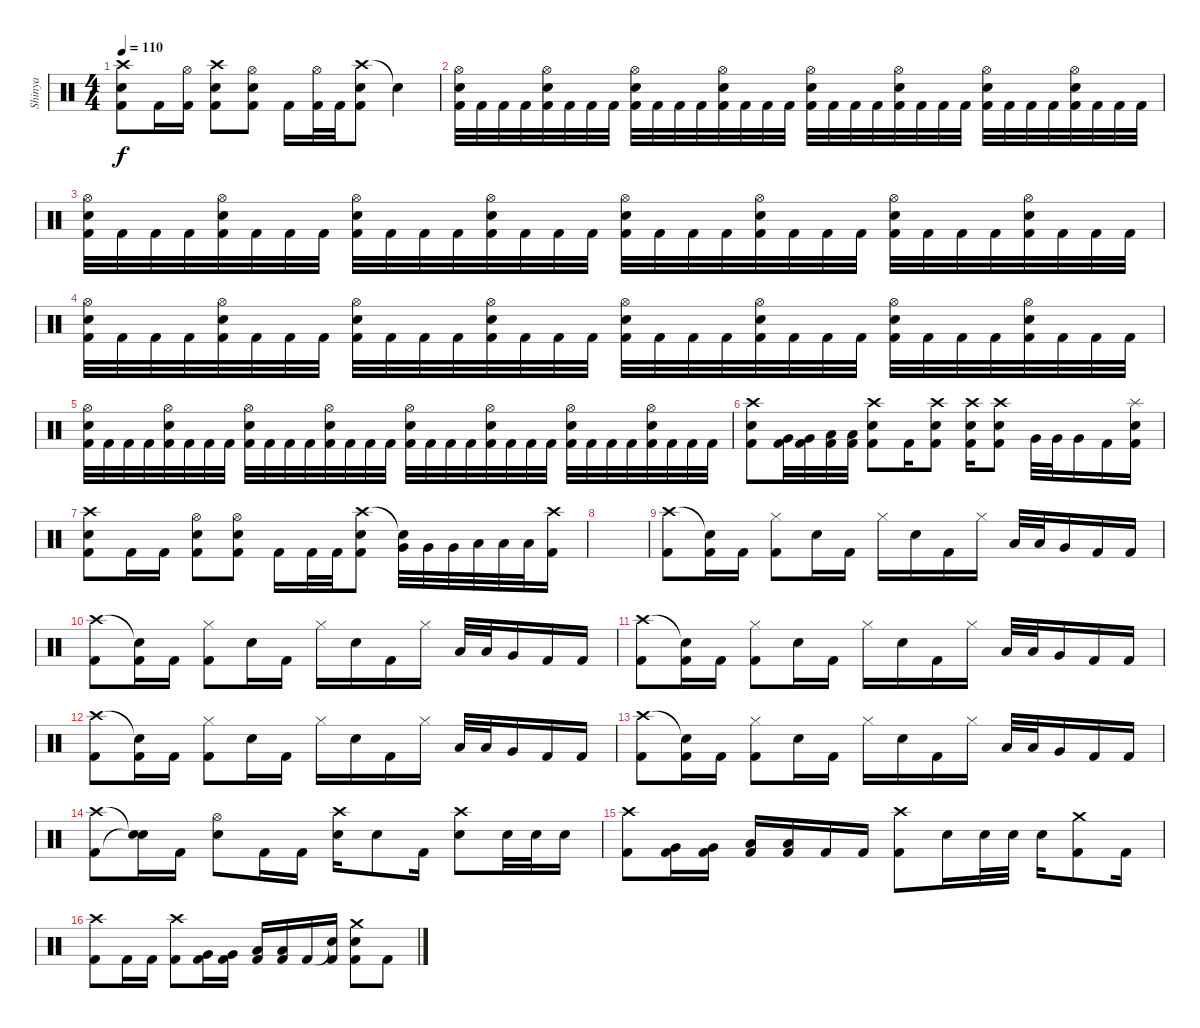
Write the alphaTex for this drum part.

\track ("Shinya" "Shinya") {instrument percussion}
\staff {score}
\articulation defaults
\ts (4 4)
\tempo 110
\clef neutral
\ks c
("Crash high (hit)" "Electric Snare (hit)" "Kick (hit) 2").8{dy f} "Kick (hit) 2".16 ("Hi-Hat (open)" "Kick (hit) 2").16 ("Crash high (hit)" "Electric Snare (hit)" "Kick (hit) 2").8 ("Hi-Hat (open)" "Electric Snare (hit)" "Kick (hit) 2").8 "Kick (hit) 2".16 ("Hi-Hat (open)" "Kick (hit) 2").32 "Kick (hit) 2".32 ("Crash high (hit)" "Electric Snare (hit)" "Kick (hit) 2").8 "Snare (hit)"{t}.4 |
("Hi-Hat (open)" "Electric Snare (hit)" "Kick (hit) 2").32 "Kick (hit) 2".32 "Kick (hit) 2".32 "Kick (hit) 2".32 ("Hi-Hat (open)" "Electric Snare (hit)" "Kick (hit) 2").32 "Kick (hit) 2".32 "Kick (hit) 2".32 "Kick (hit) 2".32 ("Hi-Hat (open)" "Electric Snare (hit)" "Kick (hit) 2").32 "Kick (hit) 2".32 "Kick (hit) 2".32 "Kick (hit) 2".32 ("Hi-Hat (open)" "Electric Snare (hit)" "Kick (hit) 2").32 "Kick (hit) 2".32 "Kick (hit) 2".32 "Kick (hit) 2".32 ("Hi-Hat (open)" "Electric Snare (hit)" "Kick (hit) 2").32 "Kick (hit) 2".32 "Kick (hit) 2".32 "Kick (hit) 2".32 ("Hi-Hat (open)" "Electric Snare (hit)" "Kick (hit) 2").32 "Kick (hit) 2".32 "Kick (hit) 2".32 "Kick (hit) 2".32 ("Hi-Hat (open)" "Electric Snare (hit)" "Kick (hit) 2").32 "Kick (hit) 2".32 "Kick (hit) 2".32 "Kick (hit) 2".32 ("Hi-Hat (open)" "Electric Snare (hit)" "Kick (hit) 2").32 "Kick (hit) 2".32 "Kick (hit) 2".32 "Kick (hit) 2".32 |
("Hi-Hat (open)" "Electric Snare (hit)" "Kick (hit) 2").32 "Kick (hit) 2".32 "Kick (hit) 2".32 "Kick (hit) 2".32 ("Hi-Hat (open)" "Electric Snare (hit)" "Kick (hit) 2").32 "Kick (hit) 2".32 "Kick (hit) 2".32 "Kick (hit) 2".32 ("Hi-Hat (open)" "Electric Snare (hit)" "Kick (hit) 2").32 "Kick (hit) 2".32 "Kick (hit) 2".32 "Kick (hit) 2".32 ("Hi-Hat (open)" "Electric Snare (hit)" "Kick (hit) 2").32 "Kick (hit) 2".32 "Kick (hit) 2".32 "Kick (hit) 2".32 ("Hi-Hat (open)" "Electric Snare (hit)" "Kick (hit) 2").32 "Kick (hit) 2".32 "Kick (hit) 2".32 "Kick (hit) 2".32 ("Hi-Hat (open)" "Electric Snare (hit)" "Kick (hit) 2").32 "Kick (hit) 2".32 "Kick (hit) 2".32 "Kick (hit) 2".32 ("Hi-Hat (open)" "Electric Snare (hit)" "Kick (hit) 2").32 "Kick (hit) 2".32 "Kick (hit) 2".32 "Kick (hit) 2".32 ("Hi-Hat (open)" "Electric Snare (hit)" "Kick (hit) 2").32 "Kick (hit) 2".32 "Kick (hit) 2".32 "Kick (hit) 2".32 |
("Hi-Hat (open)" "Electric Snare (hit)" "Kick (hit) 2").32 "Kick (hit) 2".32 "Kick (hit) 2".32 "Kick (hit) 2".32 ("Hi-Hat (open)" "Electric Snare (hit)" "Kick (hit) 2").32 "Kick (hit) 2".32 "Kick (hit) 2".32 "Kick (hit) 2".32 ("Hi-Hat (open)" "Electric Snare (hit)" "Kick (hit) 2").32 "Kick (hit) 2".32 "Kick (hit) 2".32 "Kick (hit) 2".32 ("Hi-Hat (open)" "Electric Snare (hit)" "Kick (hit) 2").32 "Kick (hit) 2".32 "Kick (hit) 2".32 "Kick (hit) 2".32 ("Hi-Hat (open)" "Electric Snare (hit)" "Kick (hit) 2").32 "Kick (hit) 2".32 "Kick (hit) 2".32 "Kick (hit) 2".32 ("Hi-Hat (open)" "Electric Snare (hit)" "Kick (hit) 2").32 "Kick (hit) 2".32 "Kick (hit) 2".32 "Kick (hit) 2".32 ("Hi-Hat (open)" "Electric Snare (hit)" "Kick (hit) 2").32 "Kick (hit) 2".32 "Kick (hit) 2".32 "Kick (hit) 2".32 ("Hi-Hat (open)" "Electric Snare (hit)" "Kick (hit) 2").32 "Kick (hit) 2".32 "Kick (hit) 2".32 "Kick (hit) 2".32 |
("Hi-Hat (open)" "Electric Snare (hit)" "Kick (hit) 2").32 "Kick (hit) 2".32 "Kick (hit) 2".32 "Kick (hit) 2".32 ("Hi-Hat (open)" "Electric Snare (hit)" "Kick (hit) 2").32 "Kick (hit) 2".32 "Kick (hit) 2".32 "Kick (hit) 2".32 ("Hi-Hat (open)" "Electric Snare (hit)" "Kick (hit) 2").32 "Kick (hit) 2".32 "Kick (hit) 2".32 "Kick (hit) 2".32 ("Hi-Hat (open)" "Electric Snare (hit)" "Kick (hit) 2").32 "Kick (hit) 2".32 "Kick (hit) 2".32 "Kick (hit) 2".32 ("Hi-Hat (open)" "Electric Snare (hit)" "Kick (hit) 2").32 "Kick (hit) 2".32 "Kick (hit) 2".32 "Kick (hit) 2".32 ("Hi-Hat (open)" "Electric Snare (hit)" "Kick (hit) 2").32 "Kick (hit) 2".32 "Kick (hit) 2".32 "Kick (hit) 2".32 ("Hi-Hat (open)" "Electric Snare (hit)" "Kick (hit) 2").32 "Kick (hit) 2".32 "Kick (hit) 2".32 "Kick (hit) 2".32 ("Hi-Hat (open)" "Electric Snare (hit)" "Kick (hit) 2").32 "Kick (hit) 2".32 "Kick (hit) 2".32 "Kick (hit) 2".32 |
("Crash high (hit)" "Electric Snare (hit)" "Kick (hit) 2").8 ("Very Low Tom (hit)" "Kick (hit) 2").32 ("Very Low Tom (hit)" "Kick (hit) 2").32 ("Low Floor Tom (hit)" "Kick (hit) 2").32 ("Low Floor Tom (hit)" "Kick (hit) 2").32 ("Crash high (hit)" "Electric Snare (hit)" "Kick (hit) 2").8 "Kick (hit) 2".16 ("Crash high (hit)" "Electric Snare (hit)" "Kick (hit) 2").8 ("Crash high (hit)" "Electric Snare (hit)" "Kick (hit) 2").16 ("Crash high (hit)" "Electric Snare (hit)" "Kick (hit) 2").8 "Very Low Tom (hit)".32 "Very Low Tom (hit)".32 "Very Low Tom (hit)".16 "Kick (hit) 2".16 ("Splash (hit)" "Electric Snare (hit)" "Kick (hit) 2").16 |
("Crash high (hit)" "Electric Snare (hit)" "Kick (hit) 2").8 "Kick (hit) 2".16 "Kick (hit) 2".16 ("Hi-Hat (open)" "Electric Snare (hit)" "Kick (hit) 2").8 ("Hi-Hat (open)" "Electric Snare (hit)" "Kick (hit) 2").8 "Kick (hit) 2".16 "Kick (hit) 2".32 "Kick (hit) 2".32 ("Crash high (hit)" "Electric Snare (hit)" "Kick (hit) 2").8 ("Snare (hit)"{t} "Very Low Tom (hit)").32 "Very Low Tom (hit)".32 "Very Low Tom (hit)".32 "Low Floor Tom (hit)".32 "Low Floor Tom (hit)".32 "Low Floor Tom (hit)".32 ("Crash high (hit)" "Kick (hit) 2").16 |
|
("Crash high (hit)" "Kick (hit) 2").8 ("Snare (hit)"{t} "Kick (hit) 2").16 "Kick (hit) 2".16 ("Hi-Hat (closed)" "Kick (hit) 2").8 "Electric Snare (hit)".16 "Kick (hit) 2".16 "Hi-Hat (closed)".16 "Electric Snare (hit)".16 "Kick (hit) 2".16 "Hi-Hat (closed)".16 "Low Tom (hit)".32 "Low Tom (hit)".32 "Very Low Tom (hit)".16 "Kick (hit) 2".16 "Kick (hit) 2".16 |
("Crash high (hit)" "Kick (hit) 2").8 ("Snare (hit)"{t} "Kick (hit) 2").16 "Kick (hit) 2".16 ("Hi-Hat (closed)" "Kick (hit) 2").8 "Electric Snare (hit)".16 "Kick (hit) 2".16 "Hi-Hat (closed)".16 "Electric Snare (hit)".16 "Kick (hit) 2".16 "Hi-Hat (closed)".16 "Low Tom (hit)".32 "Low Tom (hit)".32 "Very Low Tom (hit)".16 "Kick (hit) 2".16 "Kick (hit) 2".16 |
("Crash high (hit)" "Kick (hit) 2").8 ("Snare (hit)"{t} "Kick (hit) 2").16 "Kick (hit) 2".16 ("Hi-Hat (closed)" "Kick (hit) 2").8 "Electric Snare (hit)".16 "Kick (hit) 2".16 "Hi-Hat (closed)".16 "Electric Snare (hit)".16 "Kick (hit) 2".16 "Hi-Hat (closed)".16 "Low Tom (hit)".32 "Low Tom (hit)".32 "Very Low Tom (hit)".16 "Kick (hit) 2".16 "Kick (hit) 2".16 |
("Crash high (hit)" "Kick (hit) 2").8 ("Snare (hit)"{t} "Kick (hit) 2").16 "Kick (hit) 2".16 ("Hi-Hat (closed)" "Kick (hit) 2").8 "Electric Snare (hit)".16 "Kick (hit) 2".16 "Hi-Hat (closed)".16 "Electric Snare (hit)".16 "Kick (hit) 2".16 "Hi-Hat (closed)".16 "Low Tom (hit)".32 "Low Tom (hit)".32 "Very Low Tom (hit)".16 "Kick (hit) 2".16 "Kick (hit) 2".16 |
("Crash high (hit)" "Kick (hit) 2").8 ("Snare (hit)"{t} "Kick (hit) 2").16 "Kick (hit) 2".16 ("Hi-Hat (closed)" "Kick (hit) 2").8 "Electric Snare (hit)".16 "Kick (hit) 2".16 "Hi-Hat (closed)".16 "Electric Snare (hit)".16 "Kick (hit) 2".16 "Hi-Hat (closed)".16 "Low Tom (hit)".32 "Low Tom (hit)".32 "Very Low Tom (hit)".16 "Kick (hit) 2".16 "Kick (hit) 2".16 |
("Crash high (hit)" "Kick (hit) 2").8 ("Snare (hit)"{t} "Snare (hit)"{t}).16 "Kick (hit) 2".16 ("Hi-Hat (open)" "Electric Snare (hit)").8 "Kick (hit) 2".16 "Kick (hit) 2".16 ("Crash high (hit)" "Electric Snare (hit)").16 "Electric Snare (hit)".8 "Kick (hit) 2".16 ("Crash high (hit)" "Electric Snare (hit)").8 "Electric Snare (hit)".32 "Electric Snare (hit)".32 "Electric Snare (hit)".16 |
("Crash high (hit)" "Kick (hit) 2").8 ("Very Low Tom (hit)" "Kick (hit) 2").16 ("Very Low Tom (hit)" "Kick (hit) 2").16 ("Low Floor Tom (hit)" "Kick (hit) 2").16 ("Low Floor Tom (hit)" "Kick (hit) 2").16 "Kick (hit) 2".16 "Kick (hit) 2".16 ("Crash high (hit)" "Kick (hit) 2").8 "Electric Snare (hit)".16 "Electric Snare (hit)".32 "Electric Snare (hit)".32 "Electric Snare (hit)".16 ("Crash medium (hit)" "Kick (hit) 2").8 "Kick (hit) 2".16 |
("Crash high (hit)" "Kick (hit) 2").8 "Kick (hit) 2".16 "Kick (hit) 2".16 ("Crash high (hit)" "Kick (hit) 2").8 ("Very Low Tom (hit)" "Kick (hit) 2").16 ("Very Low Tom (hit)" "Kick (hit) 2").16 ("Low Floor Tom (hit)" "Kick (hit) 2").16 ("Low Floor Tom (hit)" "Kick (hit) 2").16 "Kick (hit) 2".16 ("Snare (hit)"{t} "Kick (hit) 2").16 ("Crash medium (hit)" "Electric Snare (hit)" "Kick (hit) 2").8 "Kick (hit) 2".8
